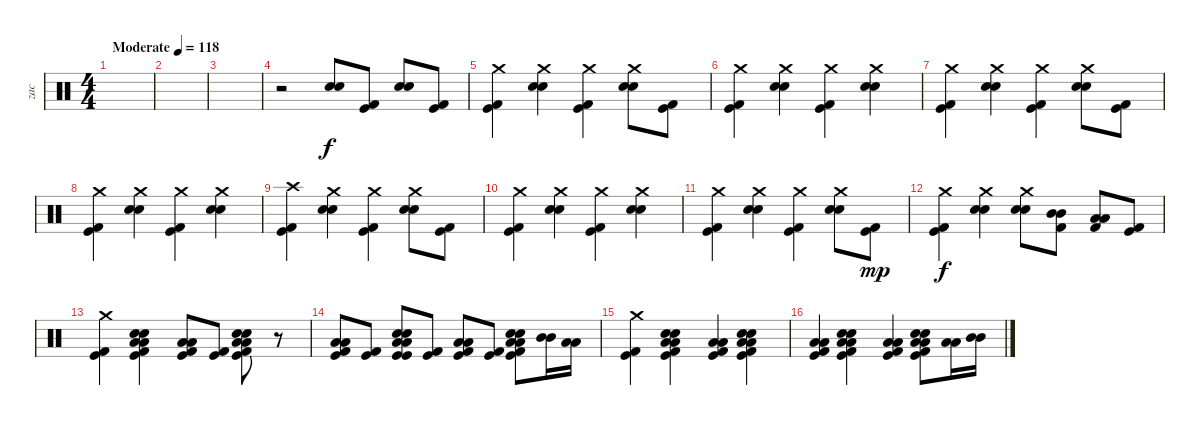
\track ("zac" "zac") {instrument percussion}
\staff {score}
\articulation defaults
\ts (4 4)
\tempo (118 "Moderate")
\clef neutral
\ks c
|
|
|
r.2 ("Electric Snare (hit)" "Electric Snare (hit)").8 ("Kick (hit)" "Kick (hit) 2").8 ("Electric Snare (hit)" "Electric Snare (hit)").8 ("Kick (hit)" "Kick (hit) 2").8 |
("Crash medium (hit)" "Kick (hit)" "Kick (hit) 2").4 ("Crash medium (hit)" "Electric Snare (hit)" "Electric Snare (hit)").4 ("Crash medium (hit)" "Kick (hit)" "Kick (hit) 2").4 ("Crash medium (hit)" "Electric Snare (hit)" "Electric Snare (hit)").8 ("Kick (hit)" "Kick (hit) 2").8 |
("Crash medium (hit)" "Kick (hit)" "Kick (hit) 2").4 ("Crash medium (hit)" "Electric Snare (hit)" "Electric Snare (hit)").4 ("Crash medium (hit)" "Kick (hit)" "Kick (hit) 2").4 ("Crash medium (hit)" "Electric Snare (hit)" "Electric Snare (hit)").4 |
("Crash medium (hit)" "Kick (hit)" "Kick (hit) 2").4 ("Crash medium (hit)" "Electric Snare (hit)" "Electric Snare (hit)").4 ("Crash medium (hit)" "Kick (hit)" "Kick (hit) 2").4 ("Crash medium (hit)" "Electric Snare (hit)" "Electric Snare (hit)").8 ("Kick (hit)" "Kick (hit) 2").8 |
("Crash medium (hit)" "Kick (hit)" "Kick (hit) 2").4 ("Crash medium (hit)" "Electric Snare (hit)" "Electric Snare (hit)").4 ("Crash medium (hit)" "Kick (hit)" "Kick (hit) 2").4 ("Crash medium (hit)" "Electric Snare (hit)" "Electric Snare (hit)").4 |
("Crash high (hit)" "Kick (hit)" "Kick (hit) 2").4 ("Crash medium (hit)" "Electric Snare (hit)" "Electric Snare (hit)").4 ("Crash medium (hit)" "Kick (hit)" "Kick (hit) 2").4 ("Crash medium (hit)" "Electric Snare (hit)" "Electric Snare (hit)").8 ("Kick (hit)" "Kick (hit) 2").8 |
("Crash medium (hit)" "Kick (hit)" "Kick (hit) 2").4 ("Crash medium (hit)" "Electric Snare (hit)" "Electric Snare (hit)").4 ("Crash medium (hit)" "Kick (hit)" "Kick (hit) 2").4 ("Crash medium (hit)" "Electric Snare (hit)" "Electric Snare (hit)").4 |
("Crash medium (hit)" "Kick (hit)" "Kick (hit) 2").4 ("Crash medium (hit)" "Electric Snare (hit)" "Electric Snare (hit)").4 ("Crash medium (hit)" "Kick (hit)" "Kick (hit) 2").4 ("Crash medium (hit)" "Electric Snare (hit)" "Electric Snare (hit)").8 ("Kick (hit)" "Kick (hit) 2").8{dy mp} |
("Crash medium (hit)" "Kick (hit)" "Kick (hit) 2").4{dy f} ("Crash medium (hit)" "Electric Snare (hit)" "Electric Snare (hit)").4 ("Crash medium (hit)" "Electric Snare (hit)" "Electric Snare (hit)").8 ("Mid Tom (hit)" "Mid Tom (hit)" "Kick (hit) 2").8 ("Low Tom (hit)" "Low Tom (hit)" "Kick (hit) 2").8 ("Kick (hit)" "Kick (hit) 2").8 |
("Crash medium (hit)" "Kick (hit)" "Kick (hit) 2").4 ("Low Tom (hit)" "Low Tom (hit)" "Electric Snare (hit)" "Electric Snare (hit)" "Kick (hit)" "Kick (hit) 2").4 ("Low Tom (hit)" "Low Tom (hit)" "Kick (hit)" "Kick (hit) 2").8 ("Kick (hit)" "Kick (hit) 2").8 ("Low Tom (hit)" "Low Tom (hit)" "Electric Snare (hit)" "Electric Snare (hit)" "Kick (hit) 2" "Kick (hit)").8 r.8 |
("Low Tom (hit)" "Low Tom (hit)" "Kick (hit)" "Kick (hit) 2").8 ("Kick (hit)" "Kick (hit) 2").8 ("Low Tom (hit)" "Low Tom (hit)" "Electric Snare (hit)" "Electric Snare (hit)" "Kick (hit)" "Kick (hit)").8 ("Kick (hit)" "Kick (hit) 2").8 ("Low Tom (hit)" "Low Tom (hit)" "Kick (hit)" "Kick (hit) 2").8 ("Kick (hit)" "Kick (hit) 2").8 ("Low Tom (hit)" "Low Tom (hit)" "Electric Snare (hit)" "Electric Snare (hit)" "Kick (hit)" "Kick (hit) 2").8 ("Mid Tom (hit)" "Mid Tom (hit)").16 ("Low Tom (hit)" "Low Tom (hit)").16 |
("Crash medium (hit)" "Kick (hit)" "Kick (hit) 2").4 ("Low Tom (hit)" "Low Tom (hit)" "Electric Snare (hit)" "Electric Snare (hit)" "Kick (hit)" "Kick (hit) 2").4 ("Low Tom (hit)" "Low Tom (hit)" "Kick (hit)" "Kick (hit) 2").4 ("Low Tom (hit)" "Low Tom (hit)" "Electric Snare (hit)" "Electric Snare (hit)" "Kick (hit) 2" "Kick (hit)").4 |
("Low Tom (hit)" "Low Tom (hit)" "Kick (hit)" "Kick (hit) 2").4 ("Low Tom (hit)" "Low Tom (hit)" "Electric Snare (hit)" "Electric Snare (hit)" "Kick (hit)" "Kick (hit) 2").4 ("Low Tom (hit)" "Low Tom (hit)" "Kick (hit)" "Kick (hit) 2").4 ("Low Tom (hit)" "Low Tom (hit)" "Electric Snare (hit)" "Electric Snare (hit)" "Kick (hit) 2" "Kick (hit)").8 ("Low Tom (hit)" "Low Tom (hit)").16 ("Mid Tom (hit)" "Mid Tom (hit)").16
